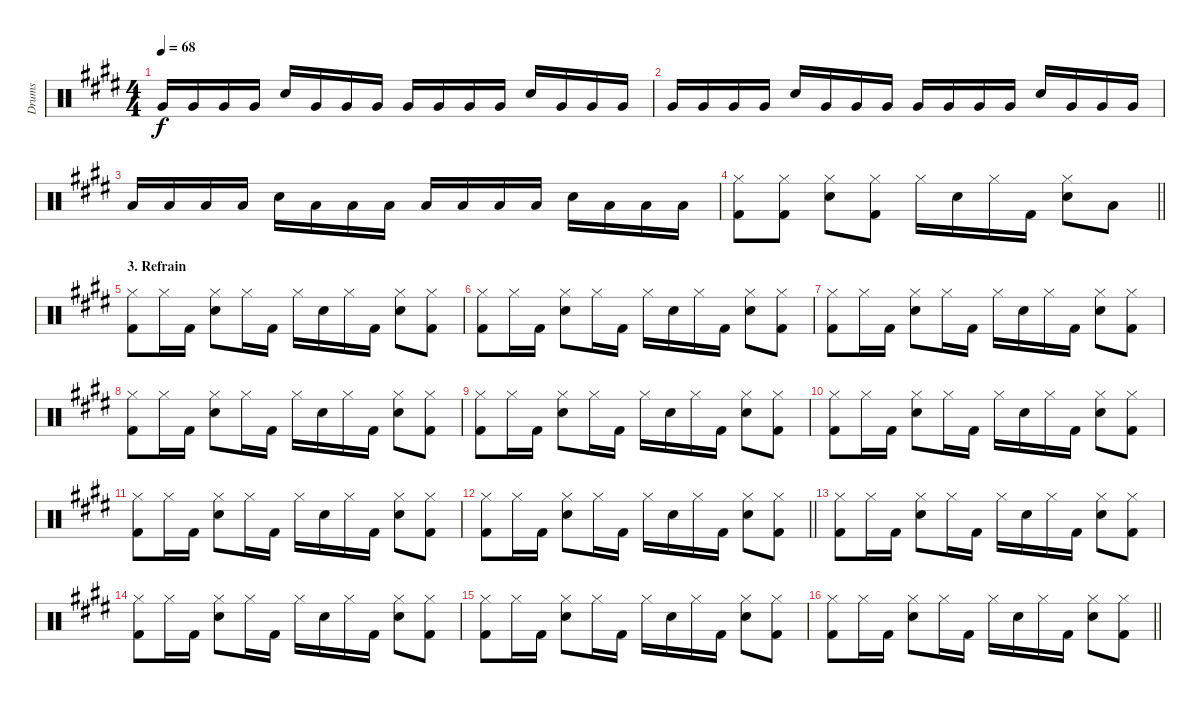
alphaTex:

\track ("Drums" "Drums") {instrument percussion}
\staff {score}
\articulation defaults
\ts (4 4)
\tempo 68
\clef neutral
\ks e "Very Low Tom (hit)".16{dy f} "Very Low Tom (hit)".16 "Very Low Tom (hit)".16 "Very Low Tom (hit)".16 "Snare (hit) 2".16 "Very Low Tom (hit)".16 "Very Low Tom (hit)".16 "Very Low Tom (hit)".16 "Very Low Tom (hit)".16 "Very Low Tom (hit)".16 "Very Low Tom (hit)".16 "Very Low Tom (hit)".16 "Snare (hit) 2".16 "Very Low Tom (hit)".16 "Very Low Tom (hit)".16 "Very Low Tom (hit)".16
|
"Very Low Tom (hit)".16 "Very Low Tom (hit)".16 "Very Low Tom (hit)".16 "Very Low Tom (hit)".16 "Snare (hit) 2".16 "Very Low Tom (hit)".16 "Very Low Tom (hit)".16 "Very Low Tom (hit)".16 "Very Low Tom (hit)".16 "Very Low Tom (hit)".16 "Very Low Tom (hit)".16 "Very Low Tom (hit)".16 "Snare (hit) 2".16 "Very Low Tom (hit)".16 "Very Low Tom (hit)".16 "Very Low Tom (hit)".16 |
"Low Tom (hit)".16 "Low Tom (hit)".16 "Low Tom (hit)".16 "Low Tom (hit)".16 "Snare (hit) 2".16 "Low Tom (hit)".16 "Low Tom (hit)".16 "Low Tom (hit)".16 "Low Tom (hit)".16 "Low Tom (hit)".16 "Low Tom (hit)".16 "Low Tom (hit)".16 "Snare (hit) 2".16 "Low Tom (hit)".16 "Low Tom (hit)".16 "Low Tom (hit)".16 |
\barLineRight lightlight
("Kick (hit) 2" "Hi-Hat (closed)").8 ("Kick (hit) 2" "Hi-Hat (closed)").8 ("Snare (hit) 2" "Hi-Hat (closed)").8 ("Kick (hit) 2" "Hi-Hat (closed)").8 "Hi-Hat (closed)".16 "Snare (hit) 2".16 "Hi-Hat (closed)".16 "Kick (hit) 2".16 ("Hi-Hat (closed)" "Snare (hit) 2").8 "Low Floor Tom (hit)".8 |
\section ("" "3. Refrain")
("Hi-Hat (closed)" "Kick (hit) 2").8 "Hi-Hat (closed)".16 "Kick (hit) 2".16 ("Snare (hit) 2" "Hi-Hat (closed)").8 "Hi-Hat (closed)".16 "Kick (hit) 2".16 "Hi-Hat (closed)".16 "Snare (hit) 2".16 "Hi-Hat (closed)".16 "Kick (hit) 2".16 ("Hi-Hat (closed)" "Snare (hit) 2").8 ("Hi-Hat (closed)" "Kick (hit) 2").8 |
("Hi-Hat (closed)" "Kick (hit) 2").8 "Hi-Hat (closed)".16 "Kick (hit) 2".16 ("Snare (hit) 2" "Hi-Hat (closed)").8 "Hi-Hat (closed)".16 "Kick (hit) 2".16 "Hi-Hat (closed)".16 "Snare (hit) 2".16 "Hi-Hat (closed)".16 "Kick (hit) 2".16 ("Hi-Hat (closed)" "Snare (hit) 2").8 ("Hi-Hat (closed)" "Kick (hit) 2").8 |
("Hi-Hat (closed)" "Kick (hit) 2").8 "Hi-Hat (closed)".16 "Kick (hit) 2".16 ("Snare (hit) 2" "Hi-Hat (closed)").8 "Hi-Hat (closed)".16 "Kick (hit) 2".16 "Hi-Hat (closed)".16 "Snare (hit) 2".16 "Hi-Hat (closed)".16 "Kick (hit) 2".16 ("Hi-Hat (closed)" "Snare (hit) 2").8 ("Hi-Hat (closed)" "Kick (hit) 2").8 |
("Hi-Hat (closed)" "Kick (hit) 2").8 "Hi-Hat (closed)".16 "Kick (hit) 2".16 ("Snare (hit) 2" "Hi-Hat (closed)").8 "Hi-Hat (closed)".16 "Kick (hit) 2".16 "Hi-Hat (closed)".16 "Snare (hit) 2".16 "Hi-Hat (closed)".16 "Kick (hit) 2".16 ("Hi-Hat (closed)" "Snare (hit) 2").8 ("Hi-Hat (closed)" "Kick (hit) 2").8 |
("Hi-Hat (closed)" "Kick (hit) 2").8 "Hi-Hat (closed)".16 "Kick (hit) 2".16 ("Snare (hit) 2" "Hi-Hat (closed)").8 "Hi-Hat (closed)".16 "Kick (hit) 2".16 "Hi-Hat (closed)".16 "Snare (hit) 2".16 "Hi-Hat (closed)".16 "Kick (hit) 2".16 ("Hi-Hat (closed)" "Snare (hit) 2").8 ("Hi-Hat (closed)" "Kick (hit) 2").8 |
("Hi-Hat (closed)" "Kick (hit) 2").8 "Hi-Hat (closed)".16 "Kick (hit) 2".16 ("Snare (hit) 2" "Hi-Hat (closed)").8 "Hi-Hat (closed)".16 "Kick (hit) 2".16 "Hi-Hat (closed)".16 "Snare (hit) 2".16 "Hi-Hat (closed)".16 "Kick (hit) 2".16 ("Hi-Hat (closed)" "Snare (hit) 2").8 ("Hi-Hat (closed)" "Kick (hit) 2").8 |
("Hi-Hat (closed)" "Kick (hit) 2").8 "Hi-Hat (closed)".16 "Kick (hit) 2".16 ("Snare (hit) 2" "Hi-Hat (closed)").8 "Hi-Hat (closed)".16 "Kick (hit) 2".16 "Hi-Hat (closed)".16 "Snare (hit) 2".16 "Hi-Hat (closed)".16 "Kick (hit) 2".16 ("Hi-Hat (closed)" "Snare (hit) 2").8 ("Hi-Hat (closed)" "Kick (hit) 2").8 |
\barLineRight lightlight
("Hi-Hat (closed)" "Kick (hit) 2").8 "Hi-Hat (closed)".16 "Kick (hit) 2".16 ("Snare (hit) 2" "Hi-Hat (closed)").8 "Hi-Hat (closed)".16 "Kick (hit) 2".16 "Hi-Hat (closed)".16 "Snare (hit) 2".16 "Hi-Hat (closed)".16 "Kick (hit) 2".16 ("Hi-Hat (closed)" "Snare (hit) 2").8 ("Hi-Hat (closed)" "Kick (hit) 2").8 |
("Hi-Hat (closed)" "Kick (hit) 2").8 "Hi-Hat (closed)".16 "Kick (hit) 2".16 ("Snare (hit) 2" "Hi-Hat (closed)").8 "Hi-Hat (closed)".16 "Kick (hit) 2".16 "Hi-Hat (closed)".16 "Snare (hit) 2".16 "Hi-Hat (closed)".16 "Kick (hit) 2".16 ("Hi-Hat (closed)" "Snare (hit) 2").8 ("Hi-Hat (closed)" "Kick (hit) 2").8 |
("Hi-Hat (closed)" "Kick (hit) 2").8 "Hi-Hat (closed)".16 "Kick (hit) 2".16 ("Snare (hit) 2" "Hi-Hat (closed)").8 "Hi-Hat (closed)".16 "Kick (hit) 2".16 "Hi-Hat (closed)".16 "Snare (hit) 2".16 "Hi-Hat (closed)".16 "Kick (hit) 2".16 ("Hi-Hat (closed)" "Snare (hit) 2").8 ("Hi-Hat (closed)" "Kick (hit) 2").8 |
("Hi-Hat (closed)" "Kick (hit) 2").8 "Hi-Hat (closed)".16 "Kick (hit) 2".16 ("Snare (hit) 2" "Hi-Hat (closed)").8 "Hi-Hat (closed)".16 "Kick (hit) 2".16 "Hi-Hat (closed)".16 "Snare (hit) 2".16 "Hi-Hat (closed)".16 "Kick (hit) 2".16 ("Hi-Hat (closed)" "Snare (hit) 2").8 ("Hi-Hat (closed)" "Kick (hit) 2").8 |
\barLineRight lightlight
("Hi-Hat (closed)" "Kick (hit) 2").8 "Hi-Hat (closed)".16 "Kick (hit) 2".16 ("Snare (hit) 2" "Hi-Hat (closed)").8 "Hi-Hat (closed)".16 "Kick (hit) 2".16 "Hi-Hat (closed)".16 "Snare (hit) 2".16 "Hi-Hat (closed)".16 "Kick (hit) 2".16 ("Hi-Hat (closed)" "Snare (hit) 2").8 ("Hi-Hat (closed)" "Kick (hit) 2").8
